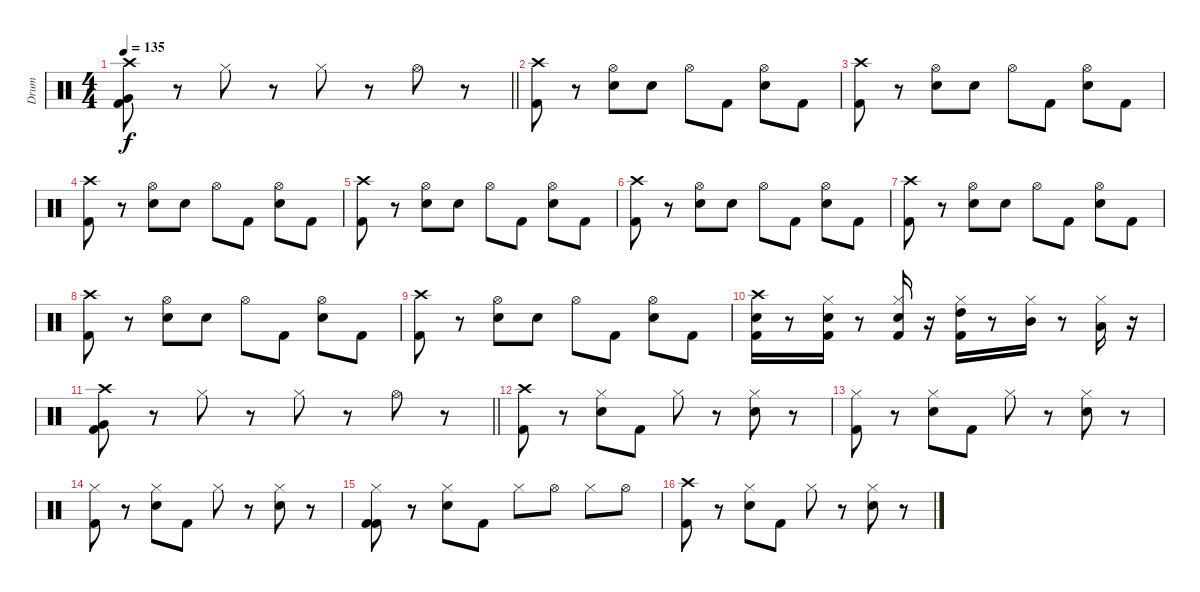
\track ("Drum" "Drum") {instrument percussion}
\staff {score}
\articulation defaults
\ts (4 4)
\tempo 135
\clef neutral
\barLineRight lightlight
\ks c
("Crash high (hit)" "Very Low Tom (hit)" "Kick (hit) 2").8{dy f} r.8 "Hi-Hat (closed)".8 r.8 "Hi-Hat (closed)".8 r.8 "Hi-Hat (open)".8 r.8 |
("Crash high (hit)" "Kick (hit) 2").8 r.8 ("Electric Snare (hit)" "Hi-Hat (open)").8 "Electric Snare (hit)".8 "Hi-Hat (open)".8 "Kick (hit) 2".8 ("Electric Snare (hit)" "Hi-Hat (open)").8 "Kick (hit) 2".8 |
("Crash high (hit)" "Kick (hit) 2").8 r.8 ("Electric Snare (hit)" "Hi-Hat (open)").8 "Electric Snare (hit)".8 "Hi-Hat (open)".8 "Kick (hit) 2".8 ("Electric Snare (hit)" "Hi-Hat (open)").8 "Kick (hit) 2".8 |
("Crash high (hit)" "Kick (hit) 2").8 r.8 ("Electric Snare (hit)" "Hi-Hat (open)").8 "Electric Snare (hit)".8 "Hi-Hat (open)".8 "Kick (hit) 2".8 ("Electric Snare (hit)" "Hi-Hat (open)").8 "Kick (hit) 2".8 |
("Crash high (hit)" "Kick (hit) 2").8 r.8 ("Electric Snare (hit)" "Hi-Hat (open)").8 "Electric Snare (hit)".8 "Hi-Hat (open)".8 "Kick (hit) 2".8 ("Electric Snare (hit)" "Hi-Hat (open)").8 "Kick (hit) 2".8 |
("Crash high (hit)" "Kick (hit) 2").8 r.8 ("Electric Snare (hit)" "Hi-Hat (open)").8 "Electric Snare (hit)".8 "Hi-Hat (open)".8 "Kick (hit) 2".8 ("Electric Snare (hit)" "Hi-Hat (open)").8 "Kick (hit) 2".8 |
("Crash high (hit)" "Kick (hit) 2").8 r.8 ("Electric Snare (hit)" "Hi-Hat (open)").8 "Electric Snare (hit)".8 "Hi-Hat (open)".8 "Kick (hit) 2".8 ("Electric Snare (hit)" "Hi-Hat (open)").8 "Kick (hit) 2".8 |
("Crash high (hit)" "Kick (hit) 2").8 r.8 ("Electric Snare (hit)" "Hi-Hat (open)").8 "Electric Snare (hit)".8 "Hi-Hat (open)".8 "Kick (hit) 2".8 ("Electric Snare (hit)" "Hi-Hat (open)").8 "Kick (hit) 2".8 |
("Crash high (hit)" "Kick (hit) 2").8 r.8 ("Electric Snare (hit)" "Hi-Hat (open)").8 "Electric Snare (hit)".8 "Hi-Hat (open)".8 "Kick (hit) 2".8 ("Electric Snare (hit)" "Hi-Hat (open)").8 "Kick (hit) 2".8 |
("Electric Snare (hit)" "Crash high (hit)" "Kick (hit) 2").16 r.8 ("Kick (hit) 2" "Electric Snare (hit)" "Hi-Hat (closed)").16 r.8 ("Kick (hit) 2" "Electric Snare (hit)" "Hi-Hat (closed)").16 r.16 ("Hi-Hat (closed)" "High Tom (hit)" "Kick (hit) 2").16 r.8 ("Mid Tom (hit)" "Hi-Hat (closed)").16 r.8 ("Hi-Hat (closed)" "Low Tom (hit)").16 r.16 |
\barLineRight lightlight
("Crash high (hit)" "Very Low Tom (hit)" "Kick (hit) 2").8 r.8 "Hi-Hat (closed)".8 r.8 "Hi-Hat (closed)".8 r.8 "Hi-Hat (open)".8 r.8 |
("Crash high (hit)" "Kick (hit) 2").8 r.8 ("Hi-Hat (closed)" "Electric Snare (hit)").8 "Kick (hit) 2".8 "Hi-Hat (closed)".8 r.8 ("Hi-Hat (closed)" "Electric Snare (hit)").8 r.8 |
("Hi-Hat (closed)" "Kick (hit) 2").8 r.8 ("Hi-Hat (closed)" "Electric Snare (hit)").8 "Kick (hit) 2".8 "Hi-Hat (closed)".8 r.8 ("Hi-Hat (closed)" "Electric Snare (hit)").8 r.8 |
("Hi-Hat (closed)" "Kick (hit) 2").8 r.8 ("Hi-Hat (closed)" "Electric Snare (hit)").8 "Kick (hit) 2".8 "Hi-Hat (closed)".8 r.8 ("Hi-Hat (closed)" "Electric Snare (hit)").8 r.8 |
("Hi-Hat (closed)" "Kick (hit) 2" "Kick (hit) 2").8 r.8 ("Electric Snare (hit)" "Hi-Hat (closed)").8 "Kick (hit) 2".8 "Hi-Hat (closed)".8 "Hi-Hat (open)".8 "Hi-Hat (closed)".8 "Hi-Hat (open)".8 |
("Crash high (hit)" "Kick (hit) 2").8 r.8 ("Hi-Hat (closed)" "Electric Snare (hit)").8 "Kick (hit) 2".8 "Hi-Hat (closed)".8 r.8 ("Hi-Hat (closed)" "Electric Snare (hit)").8 r.8
